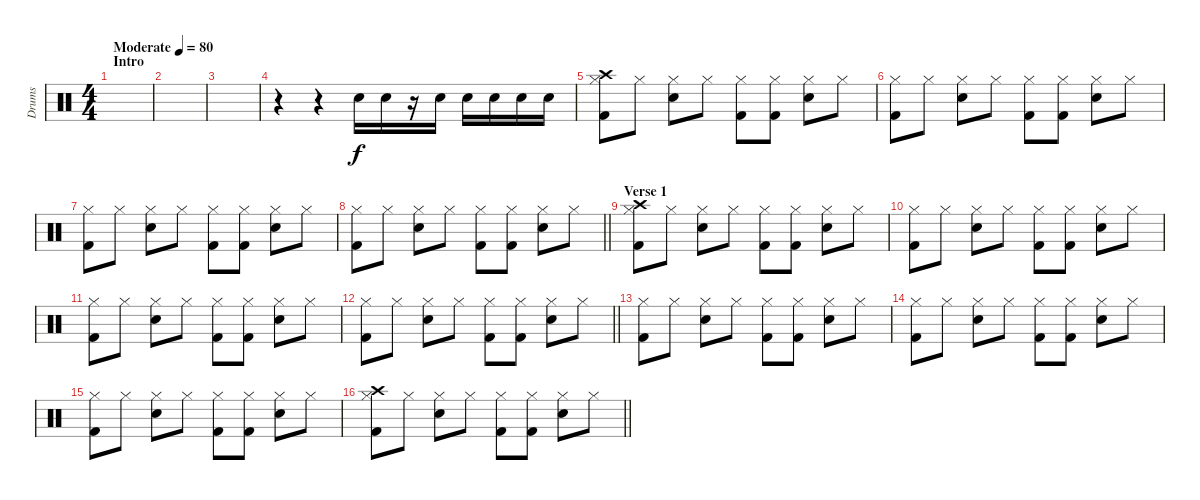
\track ("Drums" "Drums") {instrument percussion}
\staff {score}
\articulation defaults
\ts (4 4)
\section ("" "Intro")
\tempo (80 "Moderate")
\clef neutral
\ks c
|
|
|
r.4 r.4 "Snare (hit) 2".16 "Snare (hit) 2".16 r.16 "Snare (hit) 2".16 "Snare (hit) 2".16 "Snare (hit) 2".16 "Snare (hit) 2".16 "Snare (hit) 2".16 |
("Hi-Hat (closed)" "Crash high (hit)" "Kick (hit) 2").8 "Hi-Hat (closed)".8 ("Hi-Hat (closed)" "Snare (hit) 2").8 "Hi-Hat (closed)".8 ("Hi-Hat (closed)" "Kick (hit) 2").8 ("Hi-Hat (closed)" "Kick (hit) 2").8 ("Hi-Hat (closed)" "Snare (hit) 2").8 "Hi-Hat (closed)".8 |
("Hi-Hat (closed)" "Kick (hit) 2").8 "Hi-Hat (closed)".8 ("Hi-Hat (closed)" "Snare (hit) 2").8 "Hi-Hat (closed)".8 ("Hi-Hat (closed)" "Kick (hit) 2").8 ("Hi-Hat (closed)" "Kick (hit) 2").8 ("Hi-Hat (closed)" "Snare (hit) 2").8 "Hi-Hat (closed)".8 |
("Hi-Hat (closed)" "Kick (hit) 2").8 "Hi-Hat (closed)".8 ("Hi-Hat (closed)" "Snare (hit) 2").8 "Hi-Hat (closed)".8 ("Hi-Hat (closed)" "Kick (hit) 2").8 ("Hi-Hat (closed)" "Kick (hit) 2").8 ("Hi-Hat (closed)" "Snare (hit) 2").8 "Hi-Hat (closed)".8 |
\barLineRight lightlight
("Hi-Hat (closed)" "Kick (hit) 2").8 "Hi-Hat (closed)".8 ("Hi-Hat (closed)" "Snare (hit) 2").8 "Hi-Hat (closed)".8 ("Hi-Hat (closed)" "Kick (hit) 2").8 ("Hi-Hat (closed)" "Kick (hit) 2").8 ("Hi-Hat (closed)" "Snare (hit) 2").8 "Hi-Hat (closed)".8 |
\section ("" "Verse 1")
("Hi-Hat (closed)" "Crash high (hit)" "Kick (hit) 2").8 "Hi-Hat (closed)".8 ("Hi-Hat (closed)" "Snare (hit) 2").8 "Hi-Hat (closed)".8 ("Hi-Hat (closed)" "Kick (hit) 2").8 ("Hi-Hat (closed)" "Kick (hit) 2").8 ("Hi-Hat (closed)" "Snare (hit) 2").8 "Hi-Hat (closed)".8 |
("Hi-Hat (closed)" "Kick (hit) 2").8 "Hi-Hat (closed)".8 ("Hi-Hat (closed)" "Snare (hit) 2").8 "Hi-Hat (closed)".8 ("Hi-Hat (closed)" "Kick (hit) 2").8 ("Hi-Hat (closed)" "Kick (hit) 2").8 ("Hi-Hat (closed)" "Snare (hit) 2").8 "Hi-Hat (closed)".8 |
("Hi-Hat (closed)" "Kick (hit) 2").8 "Hi-Hat (closed)".8 ("Hi-Hat (closed)" "Snare (hit) 2").8 "Hi-Hat (closed)".8 ("Hi-Hat (closed)" "Kick (hit) 2").8 ("Hi-Hat (closed)" "Kick (hit) 2").8 ("Hi-Hat (closed)" "Snare (hit) 2").8 "Hi-Hat (closed)".8 |
\barLineRight lightlight
("Hi-Hat (closed)" "Kick (hit) 2").8 "Hi-Hat (closed)".8 ("Hi-Hat (closed)" "Snare (hit) 2").8 "Hi-Hat (closed)".8 ("Hi-Hat (closed)" "Kick (hit) 2").8 ("Hi-Hat (closed)" "Kick (hit) 2").8 ("Hi-Hat (closed)" "Snare (hit) 2").8 "Hi-Hat (closed)".8 |
("Hi-Hat (closed)" "Kick (hit) 2").8 "Hi-Hat (closed)".8 ("Hi-Hat (closed)" "Snare (hit) 2").8 "Hi-Hat (closed)".8 ("Hi-Hat (closed)" "Kick (hit) 2").8 ("Hi-Hat (closed)" "Kick (hit) 2").8 ("Hi-Hat (closed)" "Snare (hit) 2").8 "Hi-Hat (closed)".8 |
("Hi-Hat (closed)" "Kick (hit) 2").8 "Hi-Hat (closed)".8 ("Hi-Hat (closed)" "Snare (hit) 2").8 "Hi-Hat (closed)".8 ("Hi-Hat (closed)" "Kick (hit) 2").8 ("Hi-Hat (closed)" "Kick (hit) 2").8 ("Hi-Hat (closed)" "Snare (hit) 2").8 "Hi-Hat (closed)".8 |
("Hi-Hat (closed)" "Kick (hit) 2").8 "Hi-Hat (closed)".8 ("Hi-Hat (closed)" "Snare (hit) 2").8 "Hi-Hat (closed)".8 ("Hi-Hat (closed)" "Kick (hit) 2").8 ("Hi-Hat (closed)" "Kick (hit) 2").8 ("Hi-Hat (closed)" "Snare (hit) 2").8 "Hi-Hat (closed)".8 |
\barLineRight lightlight
("Hi-Hat (closed)" "Crash high (hit)" "Kick (hit) 2").8 "Hi-Hat (closed)".8 ("Hi-Hat (closed)" "Snare (hit) 2").8 "Hi-Hat (closed)".8 ("Hi-Hat (closed)" "Kick (hit) 2").8 ("Hi-Hat (closed)" "Kick (hit) 2").8 ("Hi-Hat (closed)" "Snare (hit) 2").8 "Hi-Hat (closed)".8
